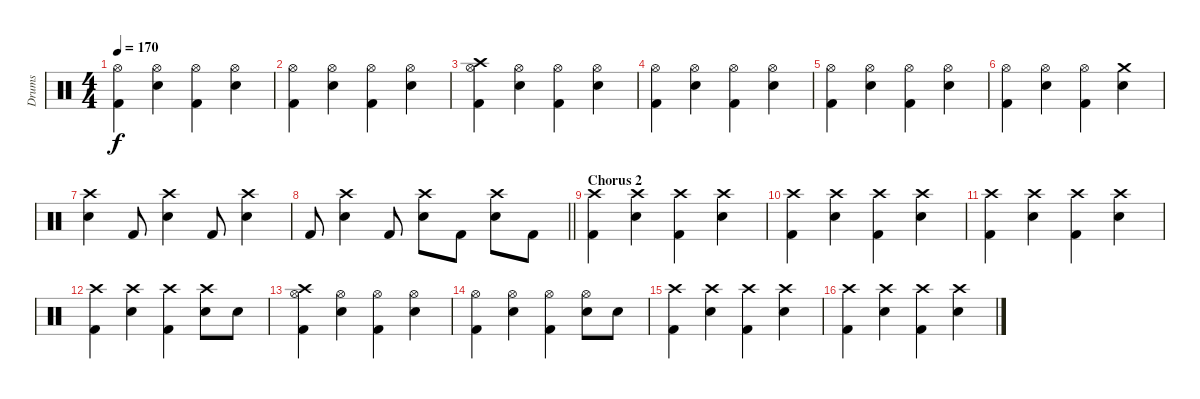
\track ("Drums" "Drums") {instrument percussion}
\staff {score}
\articulation defaults
\ts (4 4)
\tempo 170
\clef neutral
\ks c
("Hi-Hat (open)" "Kick (hit) 2").4{dy f} ("Hi-Hat (open)" "Electric Snare (hit)").4 ("Hi-Hat (open)" "Kick (hit) 2").4 ("Hi-Hat (open)" "Electric Snare (hit)").4 |
("Hi-Hat (open)" "Kick (hit) 2").4 ("Hi-Hat (open)" "Electric Snare (hit)").4 ("Hi-Hat (open)" "Kick (hit) 2").4 ("Hi-Hat (open)" "Electric Snare (hit)").4 |
("Crash high (hit)" "Hi-Hat (open)" "Kick (hit) 2").4 ("Hi-Hat (open)" "Electric Snare (hit)").4 ("Hi-Hat (open)" "Kick (hit) 2").4 ("Hi-Hat (open)" "Electric Snare (hit)").4 |
("Hi-Hat (open)" "Kick (hit) 2").4 ("Hi-Hat (open)" "Electric Snare (hit)").4 ("Hi-Hat (open)" "Kick (hit) 2").4 ("Hi-Hat (open)" "Electric Snare (hit)").4 |
("Hi-Hat (open)" "Kick (hit) 2").4 ("Hi-Hat (open)" "Electric Snare (hit)").4 ("Hi-Hat (open)" "Kick (hit) 2").4 ("Hi-Hat (open)" "Electric Snare (hit)").4 |
("Hi-Hat (open)" "Kick (hit) 2").4 ("Hi-Hat (open)" "Electric Snare (hit)").4 ("Hi-Hat (open)" "Kick (hit) 2").4 ("Crash medium (hit)" "Electric Snare (hit)").4 |
("Crash high (hit)" "Electric Snare (hit)").4 "Kick (hit) 2".8 ("Crash high (hit)" "Electric Snare (hit)").4 "Kick (hit) 2".8 ("Crash high (hit)" "Electric Snare (hit)").4 |
\barLineRight lightlight "Kick (hit) 2".8
("Crash high (hit)" "Electric Snare (hit)").4 "Kick (hit) 2".8 ("Crash high (hit)" "Electric Snare (hit)").8 "Kick (hit) 2".8 ("Crash high (hit)" "Electric Snare (hit)").8 "Kick (hit) 2".8 |
\section ("" "Chorus 2")
("Crash high (hit)" "Kick (hit) 2").4 ("Crash high (hit)" "Electric Snare (hit)").4 ("Crash high (hit)" "Kick (hit) 2").4 ("Crash high (hit)" "Electric Snare (hit)").4 |
("Crash high (hit)" "Kick (hit) 2").4 ("Crash high (hit)" "Electric Snare (hit)").4 ("Crash high (hit)" "Kick (hit) 2").4 ("Crash high (hit)" "Electric Snare (hit)").4 |
("Crash high (hit)" "Kick (hit) 2").4 ("Crash high (hit)" "Electric Snare (hit)").4 ("Crash high (hit)" "Kick (hit) 2").4 ("Crash high (hit)" "Electric Snare (hit)").4 |
("Crash high (hit)" "Kick (hit) 2").4 ("Crash high (hit)" "Electric Snare (hit)").4 ("Crash high (hit)" "Kick (hit) 2").4 ("Crash high (hit)" "Electric Snare (hit)").8 "Electric Snare (hit)".8 |
("Crash high (hit)" "Hi-Hat (open)" "Kick (hit) 2").4 ("Hi-Hat (open)" "Electric Snare (hit)").4 ("Hi-Hat (open)" "Kick (hit) 2").4 ("Hi-Hat (open)" "Electric Snare (hit)").4 |
("Hi-Hat (open)" "Kick (hit) 2").4 ("Hi-Hat (open)" "Electric Snare (hit)").4 ("Hi-Hat (open)" "Kick (hit) 2").4 ("Hi-Hat (open)" "Electric Snare (hit)").8 "Electric Snare (hit)".8 |
("Crash high (hit)" "Kick (hit) 2").4 ("Crash high (hit)" "Electric Snare (hit)").4 ("Crash high (hit)" "Kick (hit) 2").4 ("Crash high (hit)" "Electric Snare (hit)").4 |
("Crash high (hit)" "Kick (hit) 2").4 ("Crash high (hit)" "Electric Snare (hit)").4 ("Crash high (hit)" "Kick (hit) 2").4 ("Crash high (hit)" "Electric Snare (hit)").4
